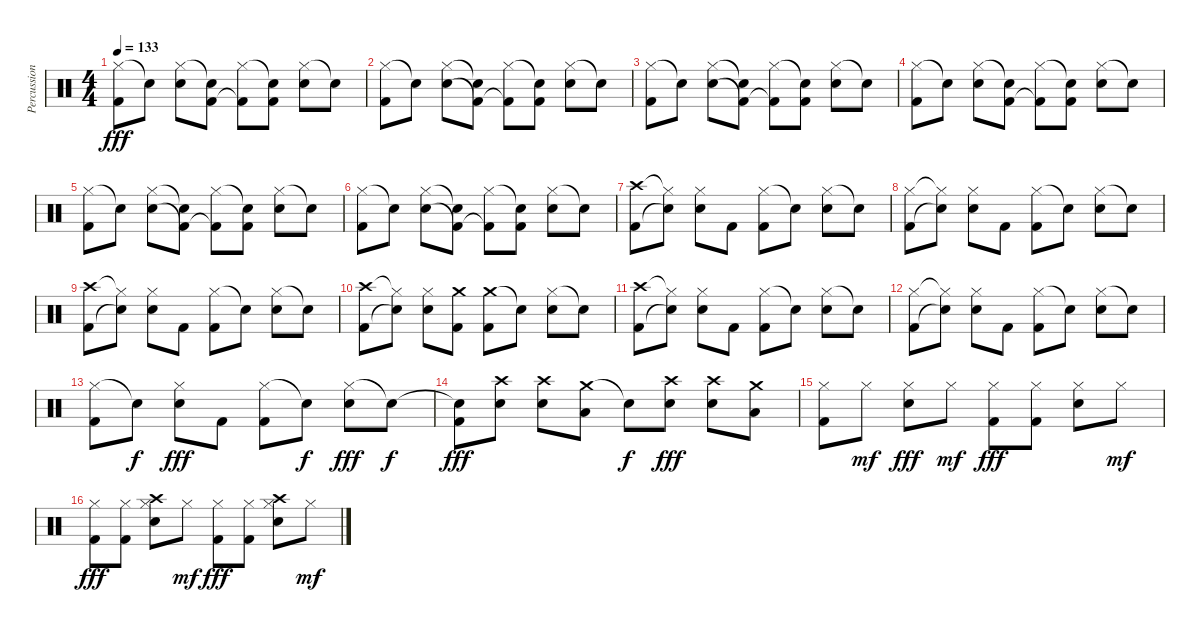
\track ("Percussion" "Percussion") {instrument percussion}
\staff {score}
\articulation defaults
\ts (4 4)
\tempo 133
\clef neutral
\ks c
("Hi-Hat (closed)" "Kick (hit) 2").8{dy fff} "Snare (hit)"{t}.8 ("Hi-Hat (closed)" "Electric Snare (hit)").8 ("Snare (hit)"{t} "Kick (hit) 2").8 ("Hi-Hat (closed)" "Kick (hit) 2"{t}).8 ("Snare (hit)"{t} "Kick (hit) 2").8 ("Hi-Hat (closed)" "Electric Snare (hit)").8 "Snare (hit)"{t}.8 |
("Hi-Hat (closed)" "Kick (hit) 2").8 "Snare (hit)"{t}.8 ("Hi-Hat (closed)" "Electric Snare (hit)").8 ("Snare (hit)"{t} "Kick (hit) 2"{t}).8 ("Hi-Hat (closed)" "Kick (hit) 2"{t}).8 ("Snare (hit)"{t} "Kick (hit) 2").8 ("Hi-Hat (closed)" "Electric Snare (hit)").8 "Snare (hit)"{t}.8 |
("Hi-Hat (closed)" "Kick (hit) 2").8 "Snare (hit)"{t}.8 ("Hi-Hat (closed)" "Electric Snare (hit)").8 ("Snare (hit)"{t} "Kick (hit) 2"{t}).8 ("Hi-Hat (closed)" "Kick (hit) 2"{t}).8 ("Snare (hit)"{t} "Kick (hit) 2").8 ("Hi-Hat (closed)" "Electric Snare (hit)").8 "Snare (hit)"{t}.8 |
("Hi-Hat (closed)" "Kick (hit) 2").8 "Snare (hit)"{t}.8 ("Hi-Hat (closed)" "Electric Snare (hit)").8 ("Snare (hit)"{t} "Kick (hit) 2").8 ("Hi-Hat (closed)" "Kick (hit) 2"{t}).8 ("Snare (hit)"{t} "Kick (hit) 2").8 ("Hi-Hat (closed)" "Electric Snare (hit)").8 "Snare (hit)"{t}.8 |
("Hi-Hat (closed)" "Kick (hit) 2").8 "Snare (hit)"{t}.8 ("Hi-Hat (closed)" "Electric Snare (hit)").8 ("Snare (hit)"{t} "Kick (hit) 2"{t}).8 ("Hi-Hat (closed)" "Kick (hit) 2"{t}).8 ("Snare (hit)"{t} "Kick (hit) 2").8 ("Hi-Hat (closed)" "Electric Snare (hit)").8 "Snare (hit)"{t}.8 |
("Hi-Hat (closed)" "Kick (hit) 2").8 "Snare (hit)"{t}.8 ("Hi-Hat (closed)" "Electric Snare (hit)").8 ("Snare (hit)"{t} "Kick (hit) 2"{t}).8 ("Hi-Hat (closed)" "Kick (hit) 2"{t}).8 ("Snare (hit)"{t} "Kick (hit) 2").8 ("Hi-Hat (closed)" "Electric Snare (hit)").8 "Snare (hit)"{t}.8 |
("Crash high (hit)" "Kick (hit) 2").8 ("Hi-Hat (closed)"{t} "Snare (hit)"{t}).8 ("Hi-Hat (closed)" "Electric Snare (hit)").8 "Kick (hit) 2".8 ("Hi-Hat (closed)" "Kick (hit) 2").8 "Snare (hit)"{t}.8 ("Hi-Hat (closed)" "Electric Snare (hit)").8 "Snare (hit)"{t}.8 |
("Hi-Hat (closed)" "Kick (hit) 2").8 ("Hi-Hat (closed)"{t} "Snare (hit)"{t}).8 ("Hi-Hat (closed)" "Electric Snare (hit)").8 "Kick (hit) 2".8 ("Hi-Hat (closed)" "Kick (hit) 2").8 "Snare (hit)"{t}.8 ("Hi-Hat (closed)" "Electric Snare (hit)").8 "Snare (hit)"{t}.8 |
("Crash high (hit)" "Kick (hit) 2").8 ("Hi-Hat (closed)"{t} "Snare (hit)"{t}).8 ("Hi-Hat (closed)" "Electric Snare (hit)").8 "Kick (hit) 2".8 ("Hi-Hat (closed)" "Kick (hit) 2").8 "Snare (hit)"{t}.8 ("Hi-Hat (closed)" "Electric Snare (hit)").8 "Snare (hit)"{t}.8 |
("Crash high (hit)" "Kick (hit) 2").8 ("Hi-Hat (closed)"{t} "Snare (hit)"{t}).8 ("Hi-Hat (closed)" "Electric Snare (hit)").8 ("Crash medium (hit)" "Kick (hit) 2").8 ("Crash medium (hit)" "Kick (hit) 2").8 "Snare (hit)"{t}.8 ("Hi-Hat (closed)" "Electric Snare (hit)").8 "Snare (hit)"{t}.8 |
("Crash high (hit)" "Kick (hit) 2").8 ("Hi-Hat (closed)"{t} "Snare (hit)"{t}).8 ("Hi-Hat (closed)" "Electric Snare (hit)").8 "Kick (hit) 2".8 ("Hi-Hat (closed)" "Kick (hit) 2").8 "Snare (hit)"{t}.8 ("Hi-Hat (closed)" "Electric Snare (hit)").8 "Snare (hit)"{t}.8 |
("Hi-Hat (closed)" "Kick (hit) 2").8 ("Hi-Hat (closed)"{t} "Snare (hit)"{t}).8 ("Hi-Hat (closed)" "Electric Snare (hit)").8 "Kick (hit) 2".8 ("Hi-Hat (closed)" "Kick (hit) 2").8 "Snare (hit)"{t}.8 ("Hi-Hat (closed)" "Electric Snare (hit)").8 "Snare (hit)"{t}.8 |
("Hi-Hat (closed)" "Kick (hit) 2").8 "Snare (hit)"{t}.8{dy f} ("Hi-Hat (closed)" "Electric Snare (hit)").8{dy fff} "Kick (hit) 2".8 ("Hi-Hat (closed)" "Kick (hit) 2").8 "Electric Snare (hit)"{t}.8{dy f} ("Hi-Hat (closed)" "Electric Snare (hit)").8{dy fff} "Snare (hit)"{t}.8{dy f} |
("Snare (hit)"{t} "Kick (hit) 2").8{dy fff} ("Crash high (hit)" "Electric Snare (hit)").8 ("Crash high (hit)" "Electric Snare (hit)").8 ("Crash medium (hit)" "Low Floor Tom (hit)").8 "Snare (hit)"{t}.8{dy f} ("Crash high (hit)" "Electric Snare (hit)").8{dy fff} ("Crash high (hit)" "Electric Snare (hit)").8 ("Crash medium (hit)" "Low Floor Tom (hit)").8 |
("Hi-Hat (closed)" "Kick (hit) 2").8 "Hi-Hat (closed)".8{dy mf} ("Hi-Hat (closed)" "Electric Snare (hit)").8{dy fff} "Hi-Hat (closed)".8{dy mf} ("Hi-Hat (closed)" "Kick (hit) 2").8{dy fff} ("Hi-Hat (closed)" "Kick (hit) 2").8 ("Hi-Hat (closed)" "Electric Snare (hit)").8 "Hi-Hat (closed)".8{dy mf} |
("Hi-Hat (closed)" "Kick (hit) 2").8{dy fff} ("Hi-Hat (closed)" "Kick (hit) 2").8 ("Crash high (hit)" "Hi-Hat (closed)" "Electric Snare (hit)").8 "Hi-Hat (closed)".8{dy mf} ("Hi-Hat (closed)" "Kick (hit) 2").8{dy fff} ("Hi-Hat (closed)" "Kick (hit) 2").8 ("Crash high (hit)" "Hi-Hat (closed)" "Electric Snare (hit)").8 "Hi-Hat (closed)".8{dy mf}
